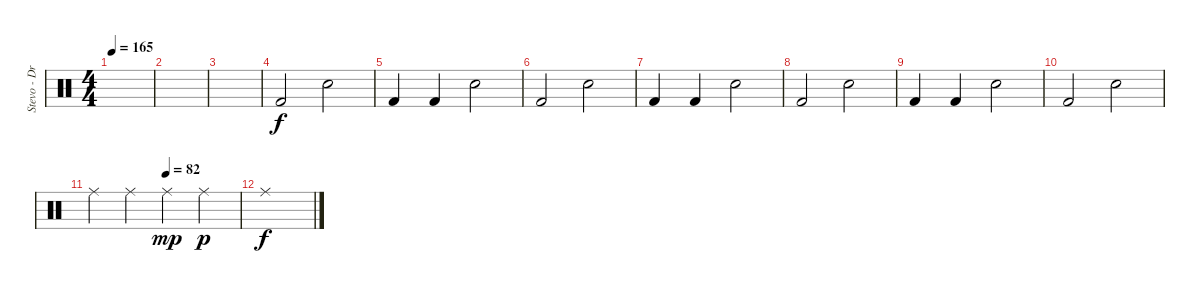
\track ("Stevo - Drums" "Stevo - Dr") {instrument percussion}
\staff {score}
\articulation defaults
\ts (4 4)
\tempo 165
\clef neutral
\ks c
|
|
|
"Kick (hit) 2".2 "Electric Snare (hit)".2 |
"Kick (hit) 2".4 "Kick (hit) 2".4 "Electric Snare (hit)".2 |
"Kick (hit) 2".2 "Electric Snare (hit)".2 |
"Kick (hit) 2".4 "Kick (hit) 2".4 "Electric Snare (hit)".2 |
"Kick (hit) 2".2 "Electric Snare (hit)".2 |
"Kick (hit) 2".4 "Kick (hit) 2".4 "Electric Snare (hit)".2 |
"Kick (hit) 2".2 "Electric Snare (hit)".2 |
\tempo (82 0.5)
"Ride (middle)".4 "Ride (middle)".4 "Ride (middle)".4{dy mp} "Ride (middle)".4{dy p} |
"Ride (middle)".1{dy f}
